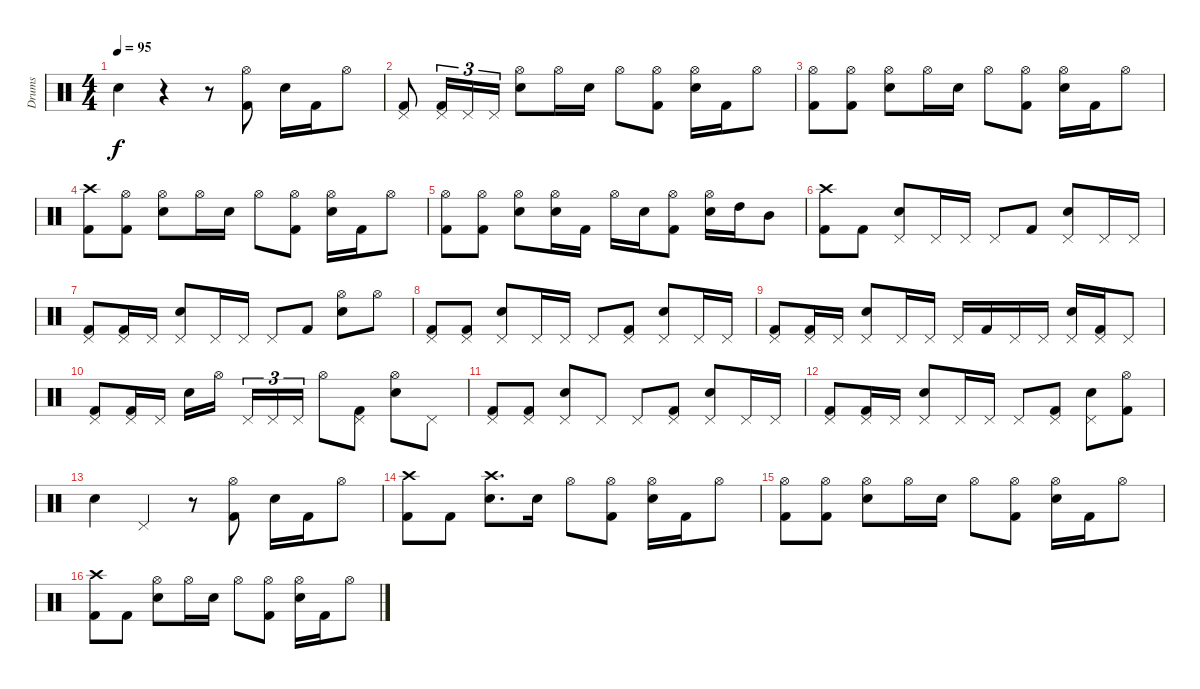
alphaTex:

\track ("Drums" "Drums") {instrument percussion}
\staff {score}
\articulation defaults
\ts (4 4)
\tempo 95
\clef neutral
\ks c "Electric Snare (hit)".4{dy f}
r.4 r.8 ("Hi-Hat (open)" "Kick (hit) 2").8 "Electric Snare (hit)".16 "Kick (hit) 2".16 "Hi-Hat (open)".8 |
("Pedal Hi-Hat (hit)" "Kick (hit) 2").8 ("Pedal Hi-Hat (hit)" "Kick (hit) 2").16{tu (3 2)} "Pedal Hi-Hat (hit)".16{tu (3 2)} "Pedal Hi-Hat (hit)".16{tu (3 2)} ("Hi-Hat (open)" "Electric Snare (hit)").8 "Hi-Hat (open)".16 "Electric Snare (hit)".16 "Hi-Hat (open)".8 ("Hi-Hat (open)" "Kick (hit) 2").8 ("Hi-Hat (open)" "Electric Snare (hit)").16 "Kick (hit) 2".16 "Hi-Hat (open)".8 |
("Hi-Hat (open)" "Kick (hit) 2").8 ("Hi-Hat (open)" "Kick (hit) 2").8 ("Hi-Hat (open)" "Electric Snare (hit)").8 "Hi-Hat (open)".16 "Electric Snare (hit)".16 "Hi-Hat (open)".8 ("Hi-Hat (open)" "Kick (hit) 2").8 ("Hi-Hat (open)" "Electric Snare (hit)").16 "Kick (hit) 2".16 "Hi-Hat (open)".8 |
("Crash high (hit)" "Kick (hit) 2").8 ("Hi-Hat (open)" "Kick (hit) 2").8 ("Hi-Hat (open)" "Electric Snare (hit)").8 "Hi-Hat (open)".16 "Electric Snare (hit)".16 "Hi-Hat (open)".8 ("Hi-Hat (open)" "Kick (hit) 2").8 ("Hi-Hat (open)" "Electric Snare (hit)").16 "Kick (hit) 2".16 "Hi-Hat (open)".8 |
("Hi-Hat (open)" "Kick (hit) 2").8 ("Hi-Hat (open)" "Kick (hit) 2").8 ("Hi-Hat (open)" "Electric Snare (hit)").8 ("Hi-Hat (open)" "Electric Snare (hit)").16 "Kick (hit) 2".16 "Hi-Hat (open)".16 "Electric Snare (hit)".16 ("Hi-Hat (open)" "Kick (hit) 2").8 ("Hi-Hat (open)" "Electric Snare (hit)").16 "High Tom (hit)".16 "Mid Tom (hit)".8 |
("Crash high (hit)" "Kick (hit) 2").8 "Kick (hit) 2".8 ("Pedal Hi-Hat (hit)" "Electric Snare (hit)").8 "Pedal Hi-Hat (hit)".16 "Pedal Hi-Hat (hit)".16 "Pedal Hi-Hat (hit)".8 "Kick (hit) 2".8 ("Pedal Hi-Hat (hit)" "Electric Snare (hit)").8 "Pedal Hi-Hat (hit)".16 "Pedal Hi-Hat (hit)".16 |
("Pedal Hi-Hat (hit)" "Kick (hit) 2").8 ("Pedal Hi-Hat (hit)" "Kick (hit) 2").16 "Pedal Hi-Hat (hit)".16 ("Pedal Hi-Hat (hit)" "Electric Snare (hit)").8 "Pedal Hi-Hat (hit)".16 "Pedal Hi-Hat (hit)".16 "Pedal Hi-Hat (hit)".8 "Kick (hit) 2".8 ("Hi-Hat (open)" "Electric Snare (hit)").8 "Hi-Hat (open)".8 |
("Pedal Hi-Hat (hit)" "Kick (hit) 2").8 ("Pedal Hi-Hat (hit)" "Kick (hit) 2").8 ("Pedal Hi-Hat (hit)" "Electric Snare (hit)").8 "Pedal Hi-Hat (hit)".16 "Pedal Hi-Hat (hit)".16 "Pedal Hi-Hat (hit)".8 ("Pedal Hi-Hat (hit)" "Kick (hit) 2").8 ("Pedal Hi-Hat (hit)" "Electric Snare (hit)").8 "Pedal Hi-Hat (hit)".16 "Pedal Hi-Hat (hit)".16 |
("Pedal Hi-Hat (hit)" "Kick (hit) 2").8 ("Pedal Hi-Hat (hit)" "Kick (hit) 2").16 "Pedal Hi-Hat (hit)".16 ("Pedal Hi-Hat (hit)" "Electric Snare (hit)").8 "Pedal Hi-Hat (hit)".16 "Pedal Hi-Hat (hit)".16 "Pedal Hi-Hat (hit)".16 "Kick (hit) 2".16 "Pedal Hi-Hat (hit)".16 "Pedal Hi-Hat (hit)".16 ("Pedal Hi-Hat (hit)" "Electric Snare (hit)").16 ("Pedal Hi-Hat (hit)" "Kick (hit) 2").16 "Pedal Hi-Hat (hit)".8 |
("Pedal Hi-Hat (hit)" "Kick (hit) 2").8 ("Pedal Hi-Hat (hit)" "Kick (hit) 2").16 "Pedal Hi-Hat (hit)".16 "Electric Snare (hit)".16 "Hi-Hat (open)".16{beam splitsecondary} "Pedal Hi-Hat (hit)".16{tu (3 2)} "Pedal Hi-Hat (hit)".16{tu (3 2)} "Pedal Hi-Hat (hit)".16{tu (3 2)} "Hi-Hat (open)".8 ("Pedal Hi-Hat (hit)" "Kick (hit) 2").8 ("Hi-Hat (open)" "Electric Snare (hit)").8 "Pedal Hi-Hat (hit)".8 |
("Pedal Hi-Hat (hit)" "Kick (hit) 2").8 ("Pedal Hi-Hat (hit)" "Kick (hit) 2").8 ("Pedal Hi-Hat (hit)" "Electric Snare (hit)").8 "Pedal Hi-Hat (hit)".8 "Pedal Hi-Hat (hit)".8 ("Pedal Hi-Hat (hit)" "Kick (hit) 2").8 ("Pedal Hi-Hat (hit)" "Electric Snare (hit)").8 "Pedal Hi-Hat (hit)".16 "Pedal Hi-Hat (hit)".16 |
("Pedal Hi-Hat (hit)" "Kick (hit) 2").8 ("Pedal Hi-Hat (hit)" "Kick (hit) 2").16 "Pedal Hi-Hat (hit)".16 ("Pedal Hi-Hat (hit)" "Electric Snare (hit)").8 "Pedal Hi-Hat (hit)".16 "Pedal Hi-Hat (hit)".16 "Pedal Hi-Hat (hit)".8 ("Pedal Hi-Hat (hit)" "Kick (hit) 2").8 ("Pedal Hi-Hat (hit)" "Electric Snare (hit)").8 ("Hi-Hat (open)" "Kick (hit) 2").8 |
"Electric Snare (hit)".4 "Pedal Hi-Hat (hit)".4 r.8 ("Hi-Hat (open)" "Kick (hit) 2").8 "Electric Snare (hit)".16 "Kick (hit) 2".16 "Hi-Hat (open)".8 |
("Crash high (hit)" "Kick (hit) 2").8 "Kick (hit) 2".8 ("Crash high (hit)" "Electric Snare (hit)").8{d} "Electric Snare (hit)".16 "Hi-Hat (open)".8 ("Hi-Hat (open)" "Kick (hit) 2").8 ("Hi-Hat (open)" "Electric Snare (hit)").16 "Kick (hit) 2".16 "Hi-Hat (open)".8 |
("Hi-Hat (open)" "Kick (hit) 2").8 ("Hi-Hat (open)" "Kick (hit) 2").8 ("Hi-Hat (open)" "Electric Snare (hit)").8 "Hi-Hat (open)".16 "Electric Snare (hit)".16 "Hi-Hat (open)".8 ("Hi-Hat (open)" "Kick (hit) 2").8 ("Hi-Hat (open)" "Electric Snare (hit)").16 "Kick (hit) 2".16 "Hi-Hat (open)".8 |
("Crash high (hit)" "Kick (hit) 2").8 "Kick (hit) 2".8 ("Hi-Hat (open)" "Electric Snare (hit)").8 "Hi-Hat (open)".16 "Electric Snare (hit)".16 "Hi-Hat (open)".8 ("Hi-Hat (open)" "Kick (hit) 2").8 ("Hi-Hat (open)" "Electric Snare (hit)").16 "Kick (hit) 2".16 "Hi-Hat (open)".8
